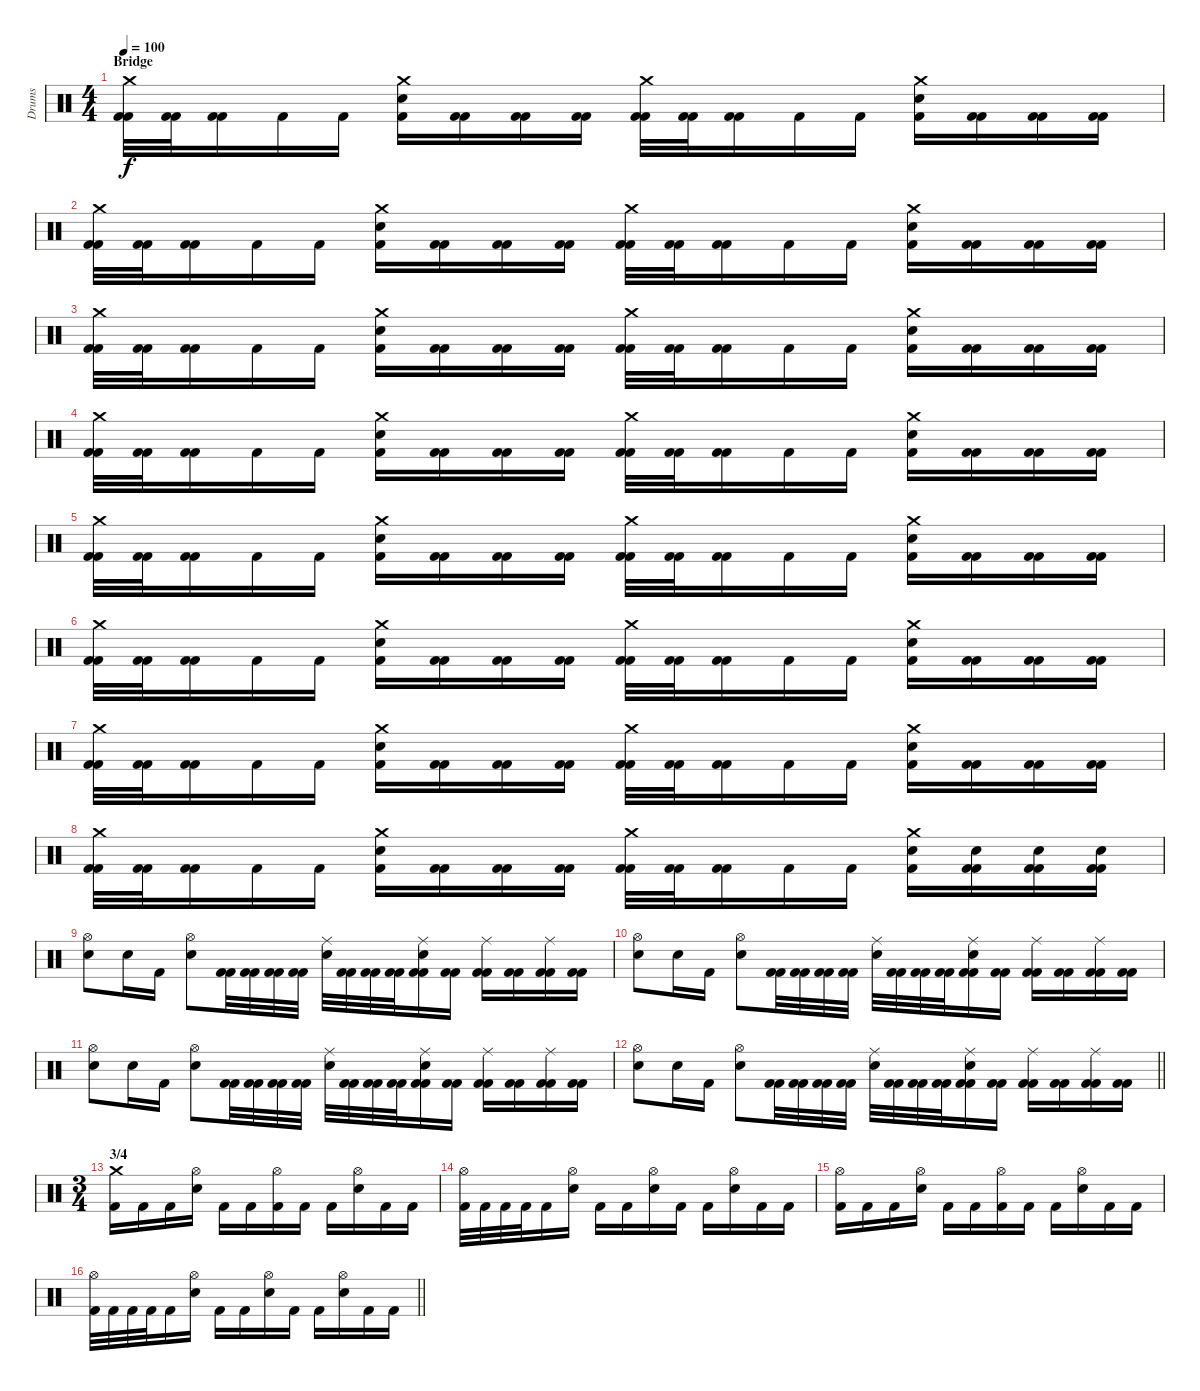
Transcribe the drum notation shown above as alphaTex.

\track ("Drums" "Drums") {instrument percussion}
\staff {score}
\articulation defaults
\ts (4 4)
\section ("" "Bridge")
\tempo 100
\clef neutral
\ks c
("Crash medium (hit)" "Kick (hit) 2" "Kick (hit) 2").32{dy f} ("Kick (hit) 2" "Kick (hit) 2").32 ("Kick (hit) 2" "Kick (hit) 2").16 "Kick (hit) 2".16 "Kick (hit) 2".16 ("Crash medium (hit)" "Snare (hit) 2" "Kick (hit) 2").16 ("Kick (hit) 2" "Kick (hit) 2").16 ("Kick (hit) 2" "Kick (hit) 2").16 ("Kick (hit) 2" "Kick (hit) 2").16 ("Crash medium (hit)" "Kick (hit) 2" "Kick (hit) 2").32 ("Kick (hit) 2" "Kick (hit) 2").32 ("Kick (hit) 2" "Kick (hit) 2").16 "Kick (hit) 2".16 "Kick (hit) 2".16 ("Crash medium (hit)" "Snare (hit) 2" "Kick (hit) 2").16 ("Kick (hit) 2" "Kick (hit) 2").16 ("Kick (hit) 2" "Kick (hit) 2").16 ("Kick (hit) 2" "Kick (hit) 2").16 |
("Crash medium (hit)" "Kick (hit) 2" "Kick (hit) 2").32 ("Kick (hit) 2" "Kick (hit) 2").32 ("Kick (hit) 2" "Kick (hit) 2").16 "Kick (hit) 2".16 "Kick (hit) 2".16 ("Crash medium (hit)" "Snare (hit) 2" "Kick (hit) 2").16 ("Kick (hit) 2" "Kick (hit) 2").16 ("Kick (hit) 2" "Kick (hit) 2").16 ("Kick (hit) 2" "Kick (hit) 2").16 ("Crash medium (hit)" "Kick (hit) 2" "Kick (hit) 2").32 ("Kick (hit) 2" "Kick (hit) 2").32 ("Kick (hit) 2" "Kick (hit) 2").16 "Kick (hit) 2".16 "Kick (hit) 2".16 ("Crash medium (hit)" "Snare (hit) 2" "Kick (hit) 2").16 ("Kick (hit) 2" "Kick (hit) 2").16 ("Kick (hit) 2" "Kick (hit) 2").16 ("Kick (hit) 2" "Kick (hit) 2").16 |
("Crash medium (hit)" "Kick (hit) 2" "Kick (hit) 2").32 ("Kick (hit) 2" "Kick (hit) 2").32 ("Kick (hit) 2" "Kick (hit) 2").16 "Kick (hit) 2".16 "Kick (hit) 2".16 ("Crash medium (hit)" "Snare (hit) 2" "Kick (hit) 2").16 ("Kick (hit) 2" "Kick (hit) 2").16 ("Kick (hit) 2" "Kick (hit) 2").16 ("Kick (hit) 2" "Kick (hit) 2").16 ("Crash medium (hit)" "Kick (hit) 2" "Kick (hit) 2").32 ("Kick (hit) 2" "Kick (hit) 2").32 ("Kick (hit) 2" "Kick (hit) 2").16 "Kick (hit) 2".16 "Kick (hit) 2".16 ("Crash medium (hit)" "Snare (hit) 2" "Kick (hit) 2").16 ("Kick (hit) 2" "Kick (hit) 2").16 ("Kick (hit) 2" "Kick (hit) 2").16 ("Kick (hit) 2" "Kick (hit) 2").16 |
("Crash medium (hit)" "Kick (hit) 2" "Kick (hit) 2").32 ("Kick (hit) 2" "Kick (hit) 2").32 ("Kick (hit) 2" "Kick (hit) 2").16 "Kick (hit) 2".16 "Kick (hit) 2".16 ("Crash medium (hit)" "Snare (hit) 2" "Kick (hit) 2").16 ("Kick (hit) 2" "Kick (hit) 2").16 ("Kick (hit) 2" "Kick (hit) 2").16 ("Kick (hit) 2" "Kick (hit) 2").16 ("Crash medium (hit)" "Kick (hit) 2" "Kick (hit) 2").32 ("Kick (hit) 2" "Kick (hit) 2").32 ("Kick (hit) 2" "Kick (hit) 2").16 "Kick (hit) 2".16 "Kick (hit) 2".16 ("Crash medium (hit)" "Snare (hit) 2" "Kick (hit) 2").16 ("Kick (hit) 2" "Kick (hit) 2").16 ("Kick (hit) 2" "Kick (hit) 2").16 ("Kick (hit) 2" "Kick (hit) 2").16 |
("Crash medium (hit)" "Kick (hit) 2" "Kick (hit) 2").32 ("Kick (hit) 2" "Kick (hit) 2").32 ("Kick (hit) 2" "Kick (hit) 2").16 "Kick (hit) 2".16 "Kick (hit) 2".16 ("Crash medium (hit)" "Snare (hit) 2" "Kick (hit) 2").16 ("Kick (hit) 2" "Kick (hit) 2").16 ("Kick (hit) 2" "Kick (hit) 2").16 ("Kick (hit) 2" "Kick (hit) 2").16 ("Crash medium (hit)" "Kick (hit) 2" "Kick (hit) 2").32 ("Kick (hit) 2" "Kick (hit) 2").32 ("Kick (hit) 2" "Kick (hit) 2").16 "Kick (hit) 2".16 "Kick (hit) 2".16 ("Crash medium (hit)" "Snare (hit) 2" "Kick (hit) 2").16 ("Kick (hit) 2" "Kick (hit) 2").16 ("Kick (hit) 2" "Kick (hit) 2").16 ("Kick (hit) 2" "Kick (hit) 2").16 |
("Crash medium (hit)" "Kick (hit) 2" "Kick (hit) 2").32 ("Kick (hit) 2" "Kick (hit) 2").32 ("Kick (hit) 2" "Kick (hit) 2").16 "Kick (hit) 2".16 "Kick (hit) 2".16 ("Crash medium (hit)" "Snare (hit) 2" "Kick (hit) 2").16 ("Kick (hit) 2" "Kick (hit) 2").16 ("Kick (hit) 2" "Kick (hit) 2").16 ("Kick (hit) 2" "Kick (hit) 2").16 ("Crash medium (hit)" "Kick (hit) 2" "Kick (hit) 2").32 ("Kick (hit) 2" "Kick (hit) 2").32 ("Kick (hit) 2" "Kick (hit) 2").16 "Kick (hit) 2".16 "Kick (hit) 2".16 ("Crash medium (hit)" "Snare (hit) 2" "Kick (hit) 2").16 ("Kick (hit) 2" "Kick (hit) 2").16 ("Kick (hit) 2" "Kick (hit) 2").16 ("Kick (hit) 2" "Kick (hit) 2").16 |
("Crash medium (hit)" "Kick (hit) 2" "Kick (hit) 2").32 ("Kick (hit) 2" "Kick (hit) 2").32 ("Kick (hit) 2" "Kick (hit) 2").16 "Kick (hit) 2".16 "Kick (hit) 2".16 ("Crash medium (hit)" "Snare (hit) 2" "Kick (hit) 2").16 ("Kick (hit) 2" "Kick (hit) 2").16 ("Kick (hit) 2" "Kick (hit) 2").16 ("Kick (hit) 2" "Kick (hit) 2").16 ("Crash medium (hit)" "Kick (hit) 2" "Kick (hit) 2").32 ("Kick (hit) 2" "Kick (hit) 2").32 ("Kick (hit) 2" "Kick (hit) 2").16 "Kick (hit) 2".16 "Kick (hit) 2".16 ("Crash medium (hit)" "Snare (hit) 2" "Kick (hit) 2").16 ("Kick (hit) 2" "Kick (hit) 2").16 ("Kick (hit) 2" "Kick (hit) 2").16 ("Kick (hit) 2" "Kick (hit) 2").16 |
("Crash medium (hit)" "Kick (hit) 2" "Kick (hit) 2").32 ("Kick (hit) 2" "Kick (hit) 2").32 ("Kick (hit) 2" "Kick (hit) 2").16 "Kick (hit) 2".16 "Kick (hit) 2".16 ("Crash medium (hit)" "Snare (hit) 2" "Kick (hit) 2").16 ("Kick (hit) 2" "Kick (hit) 2").16 ("Kick (hit) 2" "Kick (hit) 2").16 ("Kick (hit) 2" "Kick (hit) 2").16 ("Crash medium (hit)" "Kick (hit) 2" "Kick (hit) 2").32 ("Kick (hit) 2" "Kick (hit) 2").32 ("Kick (hit) 2" "Kick (hit) 2").16 "Kick (hit) 2".16 "Kick (hit) 2".16 ("Crash medium (hit)" "Snare (hit) 2" "Kick (hit) 2").16 ("Snare (hit) 2" "Kick (hit) 2" "Kick (hit) 2").16 ("Snare (hit) 2" "Kick (hit) 2" "Kick (hit) 2").16 ("Snare (hit) 2" "Kick (hit) 2" "Kick (hit) 2").16 |
("Hi-Hat (open)" "Electric Snare (hit)").8 "Electric Snare (hit)".16 "Kick (hit) 2".16 ("Hi-Hat (open)" "Electric Snare (hit)").8 ("Kick (hit) 2" "Kick (hit) 2").32 ("Kick (hit) 2" "Kick (hit) 2").32 ("Kick (hit) 2" "Kick (hit) 2").32 ("Kick (hit) 2" "Kick (hit) 2").32 ("Ride (middle)" "Electric Snare (hit)").32 ("Kick (hit) 2" "Kick (hit) 2").32 ("Kick (hit) 2" "Kick (hit) 2").32 ("Kick (hit) 2" "Kick (hit) 2").32 ("Ride (middle)" "Electric Snare (hit)" "Kick (hit) 2" "Kick (hit) 2").16 ("Kick (hit) 2" "Kick (hit) 2").16 ("Ride (middle)" "Kick (hit) 2" "Kick (hit) 2").16 ("Kick (hit) 2" "Kick (hit) 2").16 ("Ride (middle)" "Kick (hit) 2" "Kick (hit) 2").16 ("Kick (hit) 2" "Kick (hit) 2").16 |
("Hi-Hat (open)" "Electric Snare (hit)").8 "Electric Snare (hit)".16 "Kick (hit) 2".16 ("Hi-Hat (open)" "Electric Snare (hit)").8 ("Kick (hit) 2" "Kick (hit) 2").32 ("Kick (hit) 2" "Kick (hit) 2").32 ("Kick (hit) 2" "Kick (hit) 2").32 ("Kick (hit) 2" "Kick (hit) 2").32 ("Ride (middle)" "Electric Snare (hit)").32 ("Kick (hit) 2" "Kick (hit) 2").32 ("Kick (hit) 2" "Kick (hit) 2").32 ("Kick (hit) 2" "Kick (hit) 2").32 ("Ride (middle)" "Electric Snare (hit)" "Kick (hit) 2" "Kick (hit) 2").16 ("Kick (hit) 2" "Kick (hit) 2").16 ("Ride (middle)" "Kick (hit) 2" "Kick (hit) 2").16 ("Kick (hit) 2" "Kick (hit) 2").16 ("Ride (middle)" "Kick (hit) 2" "Kick (hit) 2").16 ("Kick (hit) 2" "Kick (hit) 2").16 |
("Hi-Hat (open)" "Electric Snare (hit)").8 "Electric Snare (hit)".16 "Kick (hit) 2".16 ("Hi-Hat (open)" "Electric Snare (hit)").8 ("Kick (hit) 2" "Kick (hit) 2").32 ("Kick (hit) 2" "Kick (hit) 2").32 ("Kick (hit) 2" "Kick (hit) 2").32 ("Kick (hit) 2" "Kick (hit) 2").32 ("Ride (middle)" "Electric Snare (hit)").32 ("Kick (hit) 2" "Kick (hit) 2").32 ("Kick (hit) 2" "Kick (hit) 2").32 ("Kick (hit) 2" "Kick (hit) 2").32 ("Ride (middle)" "Electric Snare (hit)" "Kick (hit) 2" "Kick (hit) 2").16 ("Kick (hit) 2" "Kick (hit) 2").16 ("Ride (middle)" "Kick (hit) 2" "Kick (hit) 2").16 ("Kick (hit) 2" "Kick (hit) 2").16 ("Ride (middle)" "Kick (hit) 2" "Kick (hit) 2").16 ("Kick (hit) 2" "Kick (hit) 2").16 |
\barLineRight lightlight
("Hi-Hat (open)" "Electric Snare (hit)").8 "Electric Snare (hit)".16 "Kick (hit) 2".16 ("Hi-Hat (open)" "Electric Snare (hit)").8 ("Kick (hit) 2" "Kick (hit) 2").32 ("Kick (hit) 2" "Kick (hit) 2").32 ("Kick (hit) 2" "Kick (hit) 2").32 ("Kick (hit) 2" "Kick (hit) 2").32 ("Ride (middle)" "Electric Snare (hit)").32 ("Kick (hit) 2" "Kick (hit) 2").32 ("Kick (hit) 2" "Kick (hit) 2").32 ("Kick (hit) 2" "Kick (hit) 2").32 ("Ride (middle)" "Electric Snare (hit)" "Kick (hit) 2" "Kick (hit) 2").16 ("Kick (hit) 2" "Kick (hit) 2").16 ("Ride (middle)" "Kick (hit) 2" "Kick (hit) 2").16 ("Kick (hit) 2" "Kick (hit) 2").16 ("Ride (middle)" "Kick (hit) 2" "Kick (hit) 2").16 ("Kick (hit) 2" "Kick (hit) 2").16 |
\ts (3 4)
\section ("" "3/4")
("Crash medium (hit)" "Kick (hit) 2").16 "Kick (hit) 2".16 "Kick (hit) 2".16 ("Hi-Hat (open)" "Electric Snare (hit)").16 "Kick (hit) 2".16 "Kick (hit) 2".16 ("Hi-Hat (open)" "Kick (hit) 2").16 "Kick (hit) 2".16 "Kick (hit) 2".16 ("Hi-Hat (open)" "Electric Snare (hit)").16 "Kick (hit) 2".16 "Kick (hit) 2".16 |
("Hi-Hat (open)" "Kick (hit) 2").32 "Kick (hit) 2".32 "Kick (hit) 2".32 "Kick (hit) 2".32 "Kick (hit) 2".16 ("Hi-Hat (open)" "Electric Snare (hit)").16 "Kick (hit) 2".16 "Kick (hit) 2".16 ("Hi-Hat (open)" "Electric Snare (hit)").16 "Kick (hit) 2".16 "Kick (hit) 2".16 ("Hi-Hat (open)" "Electric Snare (hit)").16 "Kick (hit) 2".16 "Kick (hit) 2".16 |
("Hi-Hat (open)" "Kick (hit) 2").16 "Kick (hit) 2".16 "Kick (hit) 2".16 ("Hi-Hat (open)" "Electric Snare (hit)").16 "Kick (hit) 2".16 "Kick (hit) 2".16 ("Hi-Hat (open)" "Kick (hit) 2").16 "Kick (hit) 2".16 "Kick (hit) 2".16 ("Hi-Hat (open)" "Electric Snare (hit)").16 "Kick (hit) 2".16 "Kick (hit) 2".16 |
\barLineRight lightlight
("Hi-Hat (open)" "Kick (hit) 2").32 "Kick (hit) 2".32 "Kick (hit) 2".32 "Kick (hit) 2".32 "Kick (hit) 2".16 ("Hi-Hat (open)" "Electric Snare (hit)").16 "Kick (hit) 2".16 "Kick (hit) 2".16 ("Hi-Hat (open)" "Electric Snare (hit)").16 "Kick (hit) 2".16 "Kick (hit) 2".16 ("Hi-Hat (open)" "Electric Snare (hit)").16 "Kick (hit) 2".16 "Kick (hit) 2".16
